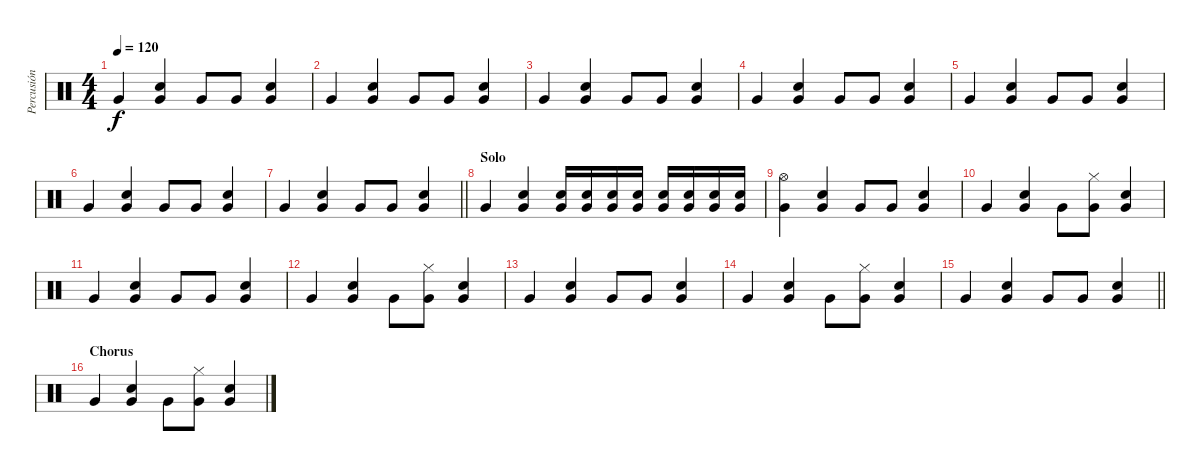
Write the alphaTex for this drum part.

\track ("Percusión" "Percusión") {instrument percussion}
\staff {score}
\articulation defaults
\ts (4 4)
\tempo 120
\clef neutral
\ks c "Very Low Tom (hit)".4{dy f}
("Electric Snare (hit)" "Very Low Tom (hit)").4 "Very Low Tom (hit)".8 "Very Low Tom (hit)".8 ("Electric Snare (hit)" "Very Low Tom (hit)").4 |
"Very Low Tom (hit)".4 ("Electric Snare (hit)" "Very Low Tom (hit)").4 "Very Low Tom (hit)".8 "Very Low Tom (hit)".8 ("Electric Snare (hit)" "Very Low Tom (hit)").4 |
"Very Low Tom (hit)".4 ("Electric Snare (hit)" "Very Low Tom (hit)").4 "Very Low Tom (hit)".8 "Very Low Tom (hit)".8 ("Electric Snare (hit)" "Very Low Tom (hit)").4 |
"Very Low Tom (hit)".4 ("Electric Snare (hit)" "Very Low Tom (hit)").4 "Very Low Tom (hit)".8 "Very Low Tom (hit)".8 ("Electric Snare (hit)" "Very Low Tom (hit)").4 |
"Very Low Tom (hit)".4 ("Electric Snare (hit)" "Very Low Tom (hit)").4 "Very Low Tom (hit)".8 "Very Low Tom (hit)".8 ("Electric Snare (hit)" "Very Low Tom (hit)").4 |
"Very Low Tom (hit)".4 ("Electric Snare (hit)" "Very Low Tom (hit)").4 "Very Low Tom (hit)".8 "Very Low Tom (hit)".8 ("Electric Snare (hit)" "Very Low Tom (hit)").4 |
\barLineRight lightlight "Very Low Tom (hit)".4
("Electric Snare (hit)" "Very Low Tom (hit)").4 "Very Low Tom (hit)".8 "Very Low Tom (hit)".8 ("Electric Snare (hit)" "Very Low Tom (hit)").4 |
\section ("" "Solo")
"Very Low Tom (hit)".4 ("Electric Snare (hit)" "Very Low Tom (hit)").4 ("Electric Snare (hit)" "Very Low Tom (hit)").16 ("Electric Snare (hit)" "Very Low Tom (hit)").16 ("Electric Snare (hit)" "Very Low Tom (hit)").16 ("Electric Snare (hit)" "Very Low Tom (hit)").16 ("Electric Snare (hit)" "Very Low Tom (hit)").16 ("Electric Snare (hit)" "Very Low Tom (hit)").16 ("Electric Snare (hit)" "Very Low Tom (hit)").16 ("Electric Snare (hit)" "Very Low Tom (hit)").16 |
("Very Low Tom (hit)" "Hi-Hat (open)").4 ("Electric Snare (hit)" "Very Low Tom (hit)").4 "Very Low Tom (hit)".8 "Very Low Tom (hit)".8 ("Electric Snare (hit)" "Very Low Tom (hit)").4 |
"Very Low Tom (hit)".4 ("Electric Snare (hit)" "Very Low Tom (hit)").4 "Very Low Tom (hit)".8 ("Very Low Tom (hit)" "Hi-Hat (closed)").8 ("Electric Snare (hit)" "Very Low Tom (hit)").4 |
"Very Low Tom (hit)".4 ("Electric Snare (hit)" "Very Low Tom (hit)").4 "Very Low Tom (hit)".8 "Very Low Tom (hit)".8 ("Electric Snare (hit)" "Very Low Tom (hit)").4 |
"Very Low Tom (hit)".4 ("Electric Snare (hit)" "Very Low Tom (hit)").4 "Very Low Tom (hit)".8 ("Very Low Tom (hit)" "Hi-Hat (closed)").8 ("Electric Snare (hit)" "Very Low Tom (hit)").4 |
"Very Low Tom (hit)".4 ("Electric Snare (hit)" "Very Low Tom (hit)").4 "Very Low Tom (hit)".8 "Very Low Tom (hit)".8 ("Electric Snare (hit)" "Very Low Tom (hit)").4 |
"Very Low Tom (hit)".4 ("Electric Snare (hit)" "Very Low Tom (hit)").4 "Very Low Tom (hit)".8 ("Very Low Tom (hit)" "Hi-Hat (closed)").8 ("Electric Snare (hit)" "Very Low Tom (hit)").4 |
\barLineRight lightlight "Very Low Tom (hit)".4
("Electric Snare (hit)" "Very Low Tom (hit)").4 "Very Low Tom (hit)".8 "Very Low Tom (hit)".8 ("Electric Snare (hit)" "Very Low Tom (hit)").4 |
\section ("" "Chorus")
"Very Low Tom (hit)".4 ("Electric Snare (hit)" "Very Low Tom (hit)").4 "Very Low Tom (hit)".8 ("Very Low Tom (hit)" "Hi-Hat (closed)").8 ("Electric Snare (hit)" "Very Low Tom (hit)").4
